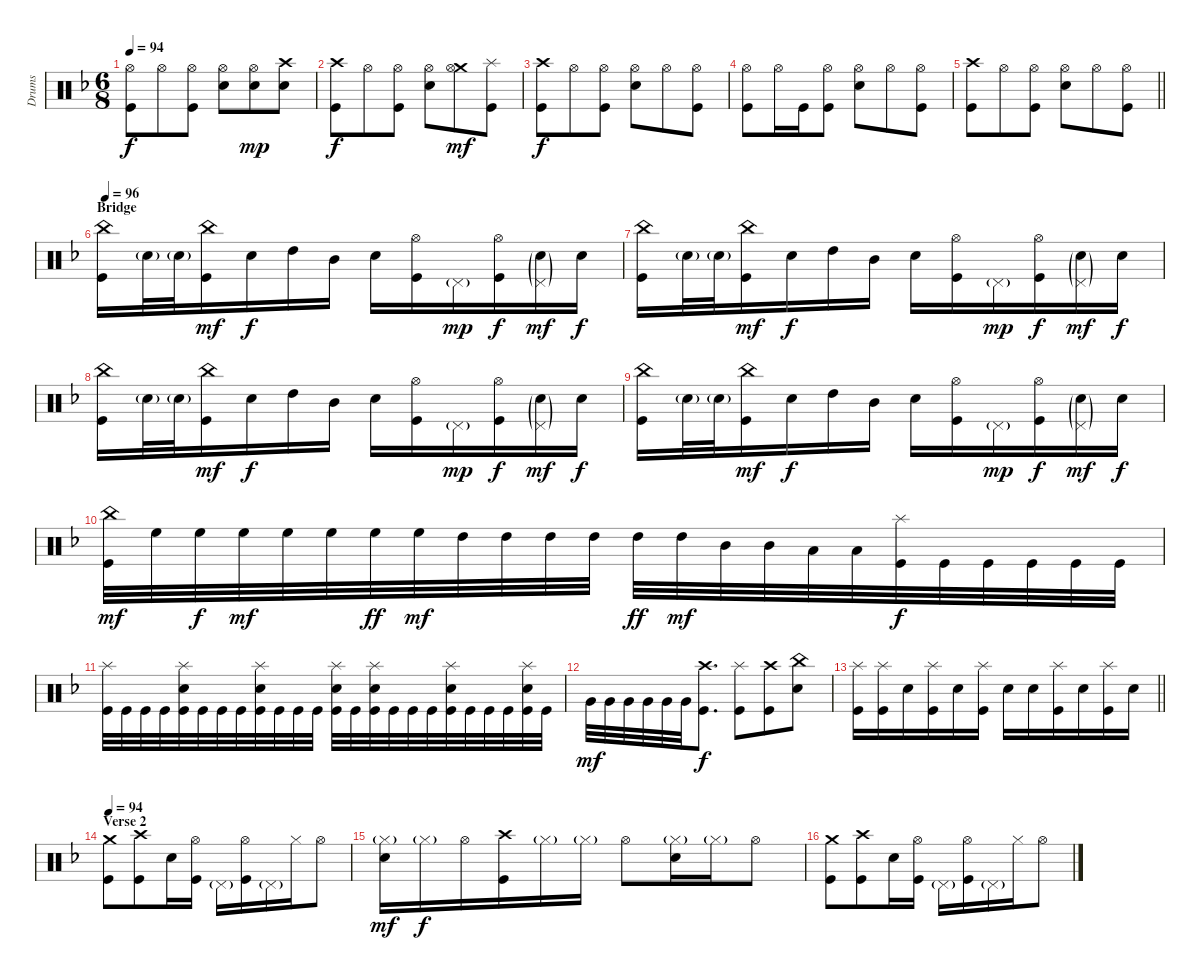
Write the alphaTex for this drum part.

\track ("Drums" "Drums") {instrument percussion bank 10}
\staff {score}
\articulation defaults
\ts (6 8)
\tempo 94
\clef neutral
\ks dminor
("Hi-Hat (open)" "Kick (hit)").8{dy f} "Hi-Hat (open)".8 ("Hi-Hat (open)" "Kick (hit)").8 ("Hi-Hat (open)" "Electric Snare (hit)").8 ("Hi-Hat (open)" "Electric Snare (hit)").8{dy mp} ("Crash high (hit)" "Electric Snare (hit)").8 |
("Crash high (hit)" "Kick (hit)").8{dy f} "Hi-Hat (open)".8 ("Hi-Hat (open)" "Kick (hit)").8 ("Hi-Hat (open)" "Electric Snare (hit)").8 ("Crash medium (hit)" "Hi-Hat (open)").8{dy mf} ("Splash (hit)" "Kick (hit)").8 |
("Crash high (hit)" "Kick (hit)").8{dy f} "Hi-Hat (open)".8 ("Hi-Hat (open)" "Kick (hit)").8 ("Hi-Hat (open)" "Electric Snare (hit)").8 "Hi-Hat (open)".8 ("Hi-Hat (open)" "Kick (hit)").8 |
("Hi-Hat (open)" "Kick (hit)").8 "Hi-Hat (open)".16 "Kick (hit)".16 ("Hi-Hat (open)" "Kick (hit)").8 ("Hi-Hat (open)" "Electric Snare (hit)").8 "Hi-Hat (open)".8 ("Hi-Hat (open)" "Kick (hit)").8 |
\barLineRight lightlight
("Crash high (hit)" "Kick (hit)").8 "Hi-Hat (open)".8 ("Hi-Hat (open)" "Kick (hit)").8 ("Hi-Hat (open)" "Electric Snare (hit)").8 "Hi-Hat (open)".8 ("Hi-Hat (open)" "Kick (hit)").8 |
\section ("" "Bridge")
\tempo 96
("China (hit)" "Kick (hit)").16{volume 15} "Electric Snare (hit)"{g}.32 "Electric Snare (hit)"{g}.32 ("China (hit)" "Kick (hit)").16{dy mf} "Electric Snare (hit)".16{dy f} "High Tom (hit)".16 "Mid Tom (hit)".16 "Electric Snare (hit)".16 ("Hi-Hat (open)" "Kick (hit)").16 "Pedal Hi-Hat (hit)"{g}.16{dy mp} ("Hi-Hat (open)" "Kick (hit)").16{dy f} ("Pedal Hi-Hat (hit)"{g} "Electric Snare (hit)"{g}).16{dy mf} "Electric Snare (hit)".16{dy f} |
("China (hit)" "Kick (hit)").16 "Electric Snare (hit)"{g}.32 "Electric Snare (hit)"{g}.32 ("China (hit)" "Kick (hit)").16{dy mf} "Electric Snare (hit)".16{dy f} "High Tom (hit)".16 "Mid Tom (hit)".16 "Electric Snare (hit)".16 ("Hi-Hat (open)" "Kick (hit)").16 "Pedal Hi-Hat (hit)"{g}.16{dy mp} ("Hi-Hat (open)" "Kick (hit)").16{dy f} ("Pedal Hi-Hat (hit)"{g} "Electric Snare (hit)"{g}).16{dy mf} "Electric Snare (hit)".16{dy f} |
("China (hit)" "Kick (hit)").16 "Electric Snare (hit)"{g}.32 "Electric Snare (hit)"{g}.32 ("China (hit)" "Kick (hit)").16{dy mf} "Electric Snare (hit)".16{dy f} "High Tom (hit)".16 "Mid Tom (hit)".16 "Electric Snare (hit)".16 ("Hi-Hat (open)" "Kick (hit)").16 "Pedal Hi-Hat (hit)"{g}.16{dy mp} ("Hi-Hat (open)" "Kick (hit)").16{dy f} ("Pedal Hi-Hat (hit)"{g} "Electric Snare (hit)"{g}).16{dy mf} "Electric Snare (hit)".16{dy f} |
("China (hit)" "Kick (hit)").16 "Electric Snare (hit)"{g}.32 "Electric Snare (hit)"{g}.32 ("China (hit)" "Kick (hit)").16{dy mf} "Electric Snare (hit)".16{dy f} "High Tom (hit)".16 "Mid Tom (hit)".16 "Electric Snare (hit)".16 ("Hi-Hat (open)" "Kick (hit)").16 "Pedal Hi-Hat (hit)"{g}.16{dy mp} ("Hi-Hat (open)" "Kick (hit)").16{dy f} ("Pedal Hi-Hat (hit)"{g} "Electric Snare (hit)"{g}).16{dy mf} "Electric Snare (hit)".16{dy f} |
("China (hit)" "Kick (hit)").32{dy mf} "High Floor Tom (hit)".32 "High Floor Tom (hit)".32{dy f} "High Floor Tom (hit)".32{dy mf} "High Floor Tom (hit)".32 "High Floor Tom (hit)".32 "High Floor Tom (hit)".32{dy ff} "High Floor Tom (hit)".32{dy mf} "High Tom (hit)".32 "High Tom (hit)".32 "High Tom (hit)".32 "High Tom (hit)".32 "High Tom (hit)".32{dy ff} "High Tom (hit)".32{dy mf} "Mid Tom (hit)".32 "Mid Tom (hit)".32 "Low Tom (hit)".32 "Low Tom (hit)".32 ("Splash (hit)" "Kick (hit)").32{dy f} "Kick (hit)".32 "Kick (hit)".32 "Kick (hit)".32 "Kick (hit)".32 "Kick (hit)".32 |
("Splash (hit)" "Kick (hit)").32 "Kick (hit)".32 "Kick (hit)".32 "Kick (hit)".32 ("Splash (hit)" "Electric Snare (hit)" "Kick (hit)").32 "Kick (hit)".32 "Kick (hit)".32 "Kick (hit)".32 ("Splash (hit)" "Electric Snare (hit)" "Kick (hit)").32 "Kick (hit)".32 "Kick (hit)".32 "Kick (hit)".32 ("Splash (hit)" "Electric Snare (hit)" "Kick (hit)").32 "Kick (hit)".32 ("Splash (hit)" "Electric Snare (hit)" "Kick (hit)").32 "Kick (hit)".32 "Kick (hit)".32 "Kick (hit)".32 ("Splash (hit)" "Electric Snare (hit)" "Kick (hit)").32 "Kick (hit)".32 "Kick (hit)".32 "Kick (hit)".32 ("Splash (hit)" "Electric Snare (hit)" "Kick (hit)").32 "Kick (hit)".32 |
"Very Low Tom (hit)".32{dy mf} "Very Low Tom (hit)".32 "Very Low Tom (hit)".32 "Very Low Tom (hit)".32 "Very Low Tom (hit)".32 "Very Low Tom (hit)".32 ("Crash high (hit)" "Kick (hit)").8{d dy f} ("Splash (hit)" "Kick (hit)").8 ("Crash high (hit)" "Kick (hit)").8 ("China (hit)" "Electric Snare (hit)").8 |
\barLineRight lightlight
("Splash (hit)" "Kick (hit)").16 ("Splash (hit)" "Kick (hit)").16 "Electric Snare (hit)".16 ("Splash (hit)" "Kick (hit)").16 "Electric Snare (hit)".16 ("Splash (hit)" "Kick (hit)").16 "Electric Snare (hit)".16 "Electric Snare (hit)".16 ("Splash (hit)" "Kick (hit)").16 "Electric Snare (hit)".16 ("Splash (hit)" "Kick (hit)").16 "Electric Snare (hit)".16 |
\section ("" "Verse 2")
\tempo 94
("Crash medium (hit)" "Kick (hit)").8 ("Crash high (hit)" "Kick (hit)").8 "Electric Snare (hit)".16 ("Hi-Hat (open)" "Kick (hit)").16 "Pedal Hi-Hat (hit)"{g}.16 ("Hi-Hat (open)" "Kick (hit)").16 "Pedal Hi-Hat (hit)"{g}.16 "Hi-Hat (closed)".16 "Hi-Hat (open)".8 |
("Hi-Hat (closed)"{g} "Electric Snare (hit)").16{dy mf} "Hi-Hat (closed)"{g}.16{dy f} "Hi-Hat (open)".16 ("Crash high (hit)" "Kick (hit)").16 "Hi-Hat (closed)"{g}.16 "Hi-Hat (closed)"{g}.16 "Hi-Hat (open)".8 ("Hi-Hat (closed)"{g} "Electric Snare (hit)").16 "Hi-Hat (closed)"{g}.16 "Hi-Hat (open)".8 |
("Crash medium (hit)" "Kick (hit)").8 ("Crash high (hit)" "Kick (hit)").8 "Electric Snare (hit)".16 ("Hi-Hat (open)" "Kick (hit)").16 "Pedal Hi-Hat (hit)"{g}.16 ("Hi-Hat (open)" "Kick (hit)").16 "Pedal Hi-Hat (hit)"{g}.16 "Hi-Hat (closed)".16 "Hi-Hat (open)".8
